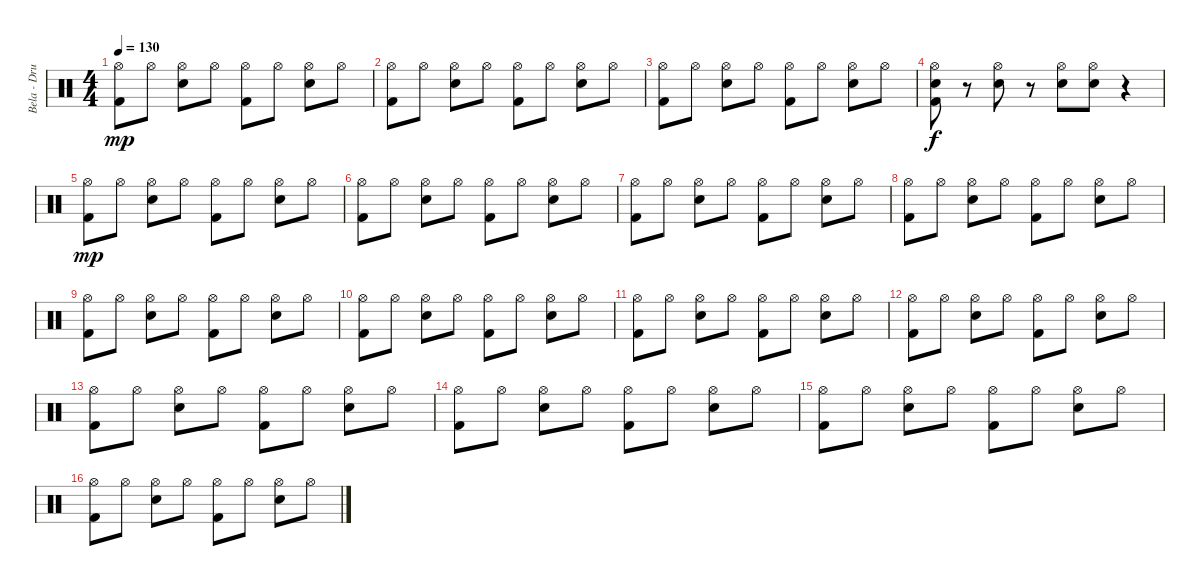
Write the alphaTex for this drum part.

\track ("Bela - Drums" "Bela - Dru") {instrument percussion}
\staff {score}
\articulation defaults
\ts (4 4)
\tempo 130
\clef neutral
\ks c
("Hi-Hat (open)" "Kick (hit) 2").8{dy mp} "Hi-Hat (open)".8 ("Hi-Hat (open)" "Snare (hit) 2").8 "Hi-Hat (open)".8 ("Hi-Hat (open)" "Kick (hit) 2").8 "Hi-Hat (open)".8 ("Hi-Hat (open)" "Snare (hit) 2").8 "Hi-Hat (open)".8 |
("Hi-Hat (open)" "Kick (hit) 2").8 "Hi-Hat (open)".8 ("Hi-Hat (open)" "Snare (hit) 2").8 "Hi-Hat (open)".8 ("Hi-Hat (open)" "Kick (hit) 2").8 "Hi-Hat (open)".8 ("Hi-Hat (open)" "Snare (hit) 2").8 "Hi-Hat (open)".8 |
("Hi-Hat (open)" "Kick (hit) 2").8 "Hi-Hat (open)".8 ("Hi-Hat (open)" "Snare (hit) 2").8 "Hi-Hat (open)".8 ("Hi-Hat (open)" "Kick (hit) 2").8 "Hi-Hat (open)".8 ("Hi-Hat (open)" "Snare (hit) 2").8 "Hi-Hat (open)".8 |
("Hi-Hat (open)" "Snare (hit) 2" "Kick (hit) 2").8{dy f} r.8 ("Hi-Hat (open)" "Snare (hit) 2").8 r.8 ("Hi-Hat (open)" "Snare (hit) 2").8 ("Hi-Hat (open)" "Snare (hit) 2").8 r.4 |
("Hi-Hat (open)" "Kick (hit) 2").8{dy mp} "Hi-Hat (open)".8 ("Hi-Hat (open)" "Snare (hit) 2").8 "Hi-Hat (open)".8 ("Hi-Hat (open)" "Kick (hit) 2").8 "Hi-Hat (open)".8 ("Hi-Hat (open)" "Snare (hit) 2").8 "Hi-Hat (open)".8 |
("Hi-Hat (open)" "Kick (hit) 2").8 "Hi-Hat (open)".8 ("Hi-Hat (open)" "Snare (hit) 2").8 "Hi-Hat (open)".8 ("Hi-Hat (open)" "Kick (hit) 2").8 "Hi-Hat (open)".8 ("Hi-Hat (open)" "Snare (hit) 2").8 "Hi-Hat (open)".8 |
("Hi-Hat (open)" "Kick (hit) 2").8 "Hi-Hat (open)".8 ("Hi-Hat (open)" "Snare (hit) 2").8 "Hi-Hat (open)".8 ("Hi-Hat (open)" "Kick (hit) 2").8 "Hi-Hat (open)".8 ("Hi-Hat (open)" "Snare (hit) 2").8 "Hi-Hat (open)".8 |
("Hi-Hat (open)" "Kick (hit) 2").8 "Hi-Hat (open)".8 ("Hi-Hat (open)" "Snare (hit) 2").8 "Hi-Hat (open)".8 ("Hi-Hat (open)" "Kick (hit) 2").8 "Hi-Hat (open)".8 ("Hi-Hat (open)" "Snare (hit) 2").8 "Hi-Hat (open)".8 |
("Hi-Hat (open)" "Kick (hit) 2").8 "Hi-Hat (open)".8 ("Hi-Hat (open)" "Snare (hit) 2").8 "Hi-Hat (open)".8 ("Hi-Hat (open)" "Kick (hit) 2").8 "Hi-Hat (open)".8 ("Hi-Hat (open)" "Snare (hit) 2").8 "Hi-Hat (open)".8 |
("Hi-Hat (open)" "Kick (hit) 2").8 "Hi-Hat (open)".8 ("Hi-Hat (open)" "Snare (hit) 2").8 "Hi-Hat (open)".8 ("Hi-Hat (open)" "Kick (hit) 2").8 "Hi-Hat (open)".8 ("Hi-Hat (open)" "Snare (hit) 2").8 "Hi-Hat (open)".8 |
("Hi-Hat (open)" "Kick (hit) 2").8 "Hi-Hat (open)".8 ("Hi-Hat (open)" "Snare (hit) 2").8 "Hi-Hat (open)".8 ("Hi-Hat (open)" "Kick (hit) 2").8 "Hi-Hat (open)".8 ("Hi-Hat (open)" "Snare (hit) 2").8 "Hi-Hat (open)".8 |
("Hi-Hat (open)" "Kick (hit) 2").8 "Hi-Hat (open)".8 ("Hi-Hat (open)" "Snare (hit) 2").8 "Hi-Hat (open)".8 ("Hi-Hat (open)" "Kick (hit) 2").8 "Hi-Hat (open)".8 ("Hi-Hat (open)" "Snare (hit) 2").8 "Hi-Hat (open)".8 |
("Hi-Hat (open)" "Kick (hit) 2").8 "Hi-Hat (open)".8 ("Hi-Hat (open)" "Snare (hit) 2").8 "Hi-Hat (open)".8 ("Hi-Hat (open)" "Kick (hit) 2").8 "Hi-Hat (open)".8 ("Hi-Hat (open)" "Snare (hit) 2").8 "Hi-Hat (open)".8 |
("Hi-Hat (open)" "Kick (hit) 2").8 "Hi-Hat (open)".8 ("Hi-Hat (open)" "Snare (hit) 2").8 "Hi-Hat (open)".8 ("Hi-Hat (open)" "Kick (hit) 2").8 "Hi-Hat (open)".8 ("Hi-Hat (open)" "Snare (hit) 2").8 "Hi-Hat (open)".8 |
("Hi-Hat (open)" "Kick (hit) 2").8 "Hi-Hat (open)".8 ("Hi-Hat (open)" "Snare (hit) 2").8 "Hi-Hat (open)".8 ("Hi-Hat (open)" "Kick (hit) 2").8 "Hi-Hat (open)".8 ("Hi-Hat (open)" "Snare (hit) 2").8 "Hi-Hat (open)".8 |
("Hi-Hat (open)" "Kick (hit) 2").8 "Hi-Hat (open)".8 ("Hi-Hat (open)" "Snare (hit) 2").8 "Hi-Hat (open)".8 ("Hi-Hat (open)" "Kick (hit) 2").8 "Hi-Hat (open)".8 ("Hi-Hat (open)" "Snare (hit) 2").8 "Hi-Hat (open)".8
